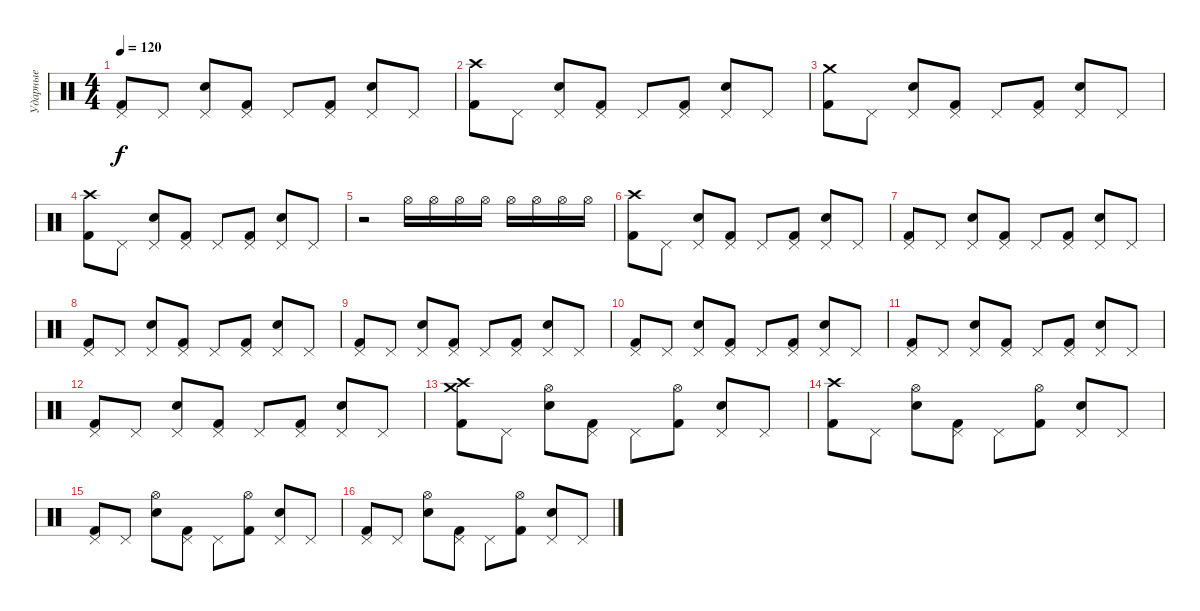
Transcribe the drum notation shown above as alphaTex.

\track ("Ударные" "Ударные") {instrument percussion}
\staff {score}
\articulation defaults
\ts (4 4)
\tempo 120
\clef neutral
\ks c
("Pedal Hi-Hat (hit)" "Kick (hit) 2").8{dy f} "Pedal Hi-Hat (hit)".8 ("Pedal Hi-Hat (hit)" "Snare (hit) 2").8 ("Pedal Hi-Hat (hit)" "Kick (hit) 2").8 "Pedal Hi-Hat (hit)".8 ("Pedal Hi-Hat (hit)" "Kick (hit) 2").8 ("Pedal Hi-Hat (hit)" "Snare (hit) 2").8 "Pedal Hi-Hat (hit)".8 |
("Crash high (hit)" "Kick (hit) 2").8 "Pedal Hi-Hat (hit)".8 ("Pedal Hi-Hat (hit)" "Snare (hit) 2").8 ("Pedal Hi-Hat (hit)" "Kick (hit) 2").8 "Pedal Hi-Hat (hit)".8 ("Pedal Hi-Hat (hit)" "Kick (hit) 2").8 ("Pedal Hi-Hat (hit)" "Snare (hit) 2").8 "Pedal Hi-Hat (hit)".8 |
("Crash medium (hit)" "Kick (hit) 2").8 "Pedal Hi-Hat (hit)".8 ("Pedal Hi-Hat (hit)" "Snare (hit) 2").8 ("Pedal Hi-Hat (hit)" "Kick (hit) 2").8 "Pedal Hi-Hat (hit)".8 ("Pedal Hi-Hat (hit)" "Kick (hit) 2").8 ("Pedal Hi-Hat (hit)" "Snare (hit) 2").8 "Pedal Hi-Hat (hit)".8 |
("Crash high (hit)" "Kick (hit) 2").8 "Pedal Hi-Hat (hit)".8 ("Pedal Hi-Hat (hit)" "Snare (hit) 2").8 ("Pedal Hi-Hat (hit)" "Kick (hit) 2").8 "Pedal Hi-Hat (hit)".8 ("Pedal Hi-Hat (hit)" "Kick (hit) 2").8 ("Pedal Hi-Hat (hit)" "Snare (hit) 2").8 "Pedal Hi-Hat (hit)".8 |
r.2 "Hi-Hat (open)".16 "Hi-Hat (open)".16 "Hi-Hat (open)".16 "Hi-Hat (open)".16 "Hi-Hat (open)".16 "Hi-Hat (open)".16 "Hi-Hat (open)".16 "Hi-Hat (open)".16 |
("Crash high (hit)" "Kick (hit) 2").8 "Pedal Hi-Hat (hit)".8 ("Pedal Hi-Hat (hit)" "Snare (hit) 2").8 ("Pedal Hi-Hat (hit)" "Kick (hit) 2").8 "Pedal Hi-Hat (hit)".8 ("Pedal Hi-Hat (hit)" "Kick (hit) 2").8 ("Pedal Hi-Hat (hit)" "Snare (hit) 2").8 "Pedal Hi-Hat (hit)".8 |
("Pedal Hi-Hat (hit)" "Kick (hit) 2").8 "Pedal Hi-Hat (hit)".8 ("Pedal Hi-Hat (hit)" "Snare (hit) 2").8 ("Pedal Hi-Hat (hit)" "Kick (hit) 2").8 "Pedal Hi-Hat (hit)".8 ("Pedal Hi-Hat (hit)" "Kick (hit) 2").8 ("Pedal Hi-Hat (hit)" "Snare (hit) 2").8 "Pedal Hi-Hat (hit)".8 |
("Pedal Hi-Hat (hit)" "Kick (hit) 2").8 "Pedal Hi-Hat (hit)".8 ("Pedal Hi-Hat (hit)" "Snare (hit) 2").8 ("Pedal Hi-Hat (hit)" "Kick (hit) 2").8 "Pedal Hi-Hat (hit)".8 ("Pedal Hi-Hat (hit)" "Kick (hit) 2").8 ("Pedal Hi-Hat (hit)" "Snare (hit) 2").8 "Pedal Hi-Hat (hit)".8 |
("Pedal Hi-Hat (hit)" "Kick (hit) 2").8 "Pedal Hi-Hat (hit)".8 ("Pedal Hi-Hat (hit)" "Snare (hit) 2").8 ("Pedal Hi-Hat (hit)" "Kick (hit) 2").8 "Pedal Hi-Hat (hit)".8 ("Pedal Hi-Hat (hit)" "Kick (hit) 2").8 ("Pedal Hi-Hat (hit)" "Snare (hit) 2").8 "Pedal Hi-Hat (hit)".8 |
("Pedal Hi-Hat (hit)" "Kick (hit) 2").8 "Pedal Hi-Hat (hit)".8 ("Pedal Hi-Hat (hit)" "Snare (hit) 2").8 ("Pedal Hi-Hat (hit)" "Kick (hit) 2").8 "Pedal Hi-Hat (hit)".8 ("Pedal Hi-Hat (hit)" "Kick (hit) 2").8 ("Pedal Hi-Hat (hit)" "Snare (hit) 2").8 "Pedal Hi-Hat (hit)".8 |
("Pedal Hi-Hat (hit)" "Kick (hit) 2").8 "Pedal Hi-Hat (hit)".8 ("Pedal Hi-Hat (hit)" "Snare (hit) 2").8 ("Pedal Hi-Hat (hit)" "Kick (hit) 2").8 "Pedal Hi-Hat (hit)".8 ("Pedal Hi-Hat (hit)" "Kick (hit) 2").8 ("Pedal Hi-Hat (hit)" "Snare (hit) 2").8 "Pedal Hi-Hat (hit)".8 |
("Pedal Hi-Hat (hit)" "Kick (hit) 2").8 "Pedal Hi-Hat (hit)".8 ("Pedal Hi-Hat (hit)" "Snare (hit) 2").8 ("Pedal Hi-Hat (hit)" "Kick (hit) 2").8 "Pedal Hi-Hat (hit)".8 ("Pedal Hi-Hat (hit)" "Kick (hit) 2").8 ("Pedal Hi-Hat (hit)" "Snare (hit) 2").8 "Pedal Hi-Hat (hit)".8 |
("Crash medium (hit)" "Crash high (hit)" "Kick (hit) 2").8 "Pedal Hi-Hat (hit)".8 ("Hi-Hat (open)" "Snare (hit) 2").8 ("Pedal Hi-Hat (hit)" "Kick (hit) 2").8 "Pedal Hi-Hat (hit)".8 ("Hi-Hat (open)" "Kick (hit) 2").8 ("Pedal Hi-Hat (hit)" "Snare (hit) 2").8 "Pedal Hi-Hat (hit)".8 |
("Crash high (hit)" "Kick (hit) 2").8 "Pedal Hi-Hat (hit)".8 ("Hi-Hat (open)" "Snare (hit) 2").8 ("Pedal Hi-Hat (hit)" "Kick (hit) 2").8 "Pedal Hi-Hat (hit)".8 ("Hi-Hat (open)" "Kick (hit) 2").8 ("Pedal Hi-Hat (hit)" "Snare (hit) 2").8 "Pedal Hi-Hat (hit)".8 |
("Pedal Hi-Hat (hit)" "Kick (hit) 2").8 "Pedal Hi-Hat (hit)".8 ("Hi-Hat (open)" "Snare (hit) 2").8 ("Pedal Hi-Hat (hit)" "Kick (hit) 2").8 "Pedal Hi-Hat (hit)".8 ("Hi-Hat (open)" "Kick (hit) 2").8 ("Pedal Hi-Hat (hit)" "Snare (hit) 2").8 "Pedal Hi-Hat (hit)".8 |
("Pedal Hi-Hat (hit)" "Kick (hit) 2").8 "Pedal Hi-Hat (hit)".8 ("Hi-Hat (open)" "Snare (hit) 2").8 ("Pedal Hi-Hat (hit)" "Kick (hit) 2").8 "Pedal Hi-Hat (hit)".8 ("Hi-Hat (open)" "Kick (hit) 2").8 ("Pedal Hi-Hat (hit)" "Snare (hit) 2").8 "Pedal Hi-Hat (hit)".8
